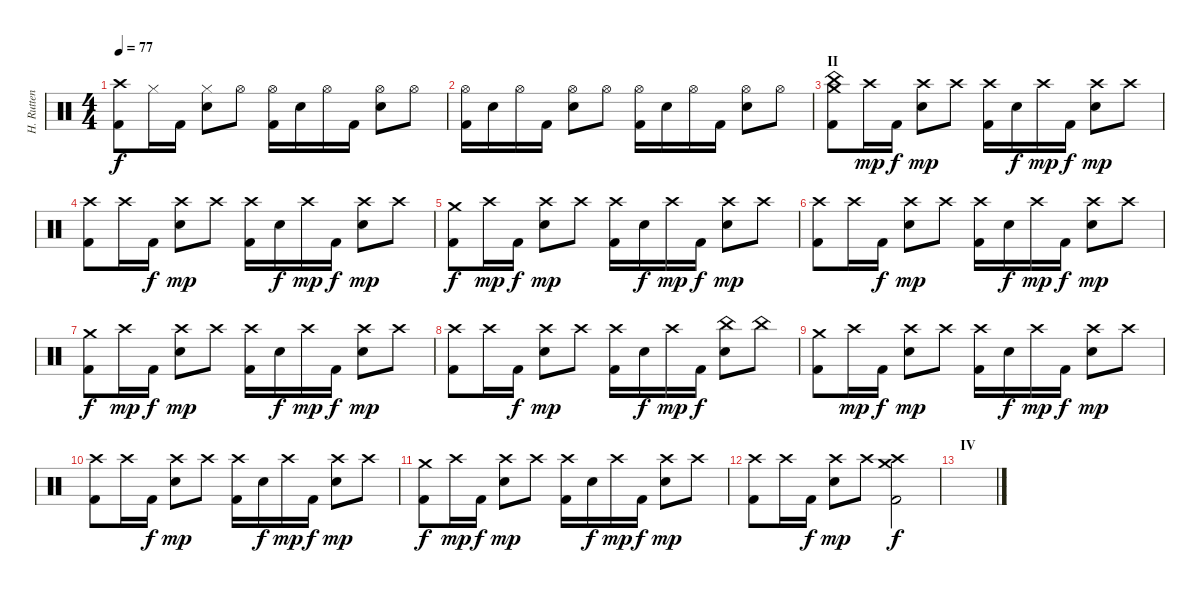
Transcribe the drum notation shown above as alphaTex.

\track ("H. Rutten" "H. Rutten") {instrument percussion}
\staff {score}
\articulation defaults
\ts (4 4)
\tempo 77
\clef neutral
\ks c
("Kick (hit) 2" "Crash high (hit)").8{dy f} "Hi-Hat (closed)".16 "Kick (hit) 2".16 ("Electric Snare (hit)" "Hi-Hat (closed)").8 "Hi-Hat (open)".8 ("Kick (hit) 2" "Hi-Hat (open)").16 "Electric Snare (hit)".16 "Hi-Hat (open)".16 "Kick (hit) 2".16 ("Electric Snare (hit)" "Hi-Hat (open)").8 "Hi-Hat (open)".8 |
("Kick (hit) 2" "Hi-Hat (open)").16 "Electric Snare (hit)".16 "Hi-Hat (open)".16 "Kick (hit) 2".16 ("Electric Snare (hit)" "Hi-Hat (open)").8 "Hi-Hat (open)".8 ("Kick (hit) 2" "Hi-Hat (open)").16 "Electric Snare (hit)".16 "Hi-Hat (open)".16 "Kick (hit) 2".16 ("Electric Snare (hit)" "Hi-Hat (open)").8 "Hi-Hat (open)".8 |
\section ("" "II")
("Kick (hit) 2" "Crash medium (hit)" "China (hit)").8 "Crash high (hit)".16{dy mp} "Kick (hit) 2".16{dy f} ("Electric Snare (hit)" "Crash high (hit)").8{dy mp} "Crash high (hit)".8 ("Kick (hit) 2" "Crash high (hit)").16 "Electric Snare (hit)".16{dy f} "Crash high (hit)".16{dy mp} "Kick (hit) 2".16{dy f} ("Electric Snare (hit)" "Crash high (hit)").8{dy mp} "Crash high (hit)".8 |
("Kick (hit) 2" "Crash high (hit)").8 "Crash high (hit)".16 "Kick (hit) 2".16{dy f} ("Electric Snare (hit)" "Crash high (hit)").8{dy mp} "Crash high (hit)".8 ("Kick (hit) 2" "Crash high (hit)").16 "Electric Snare (hit)".16{dy f} "Crash high (hit)".16{dy mp} "Kick (hit) 2".16{dy f} ("Electric Snare (hit)" "Crash high (hit)").8{dy mp} "Crash high (hit)".8 |
("Kick (hit) 2" "Crash medium (hit)").8{dy f} "Crash high (hit)".16{dy mp} "Kick (hit) 2".16{dy f} ("Electric Snare (hit)" "Crash high (hit)").8{dy mp} "Crash high (hit)".8 ("Kick (hit) 2" "Crash high (hit)").16 "Electric Snare (hit)".16{dy f} "Crash high (hit)".16{dy mp} "Kick (hit) 2".16{dy f} ("Electric Snare (hit)" "Crash high (hit)").8{dy mp} "Crash high (hit)".8 |
("Kick (hit) 2" "Crash high (hit)").8 "Crash high (hit)".16 "Kick (hit) 2".16{dy f} ("Electric Snare (hit)" "Crash high (hit)").8{dy mp} "Crash high (hit)".8 ("Kick (hit) 2" "Crash high (hit)").16 "Electric Snare (hit)".16{dy f} "Crash high (hit)".16{dy mp} "Kick (hit) 2".16{dy f} ("Electric Snare (hit)" "Crash high (hit)").8{dy mp} "Crash high (hit)".8 |
("Kick (hit) 2" "Crash medium (hit)").8{dy f} "Crash high (hit)".16{dy mp} "Kick (hit) 2".16{dy f} ("Electric Snare (hit)" "Crash high (hit)").8{dy mp} "Crash high (hit)".8 ("Kick (hit) 2" "Crash high (hit)").16 "Electric Snare (hit)".16{dy f} "Crash high (hit)".16{dy mp} "Kick (hit) 2".16{dy f} ("Electric Snare (hit)" "Crash high (hit)").8{dy mp} "Crash high (hit)".8 |
("Kick (hit) 2" "Crash high (hit)").8 "Crash high (hit)".16 "Kick (hit) 2".16{dy f} ("Electric Snare (hit)" "Crash high (hit)").8{dy mp} "Crash high (hit)".8 ("Kick (hit) 2" "Crash high (hit)").16 "Electric Snare (hit)".16{dy f} "Crash high (hit)".16{dy mp} "Kick (hit) 2".16{dy f} ("Electric Snare (hit)" "China (hit)").8 "China (hit)".8 |
("Kick (hit) 2" "Crash medium (hit)").8 "Crash high (hit)".16{dy mp} "Kick (hit) 2".16{dy f} ("Electric Snare (hit)" "Crash high (hit)").8{dy mp} "Crash high (hit)".8 ("Kick (hit) 2" "Crash high (hit)").16 "Electric Snare (hit)".16{dy f} "Crash high (hit)".16{dy mp} "Kick (hit) 2".16{dy f} ("Electric Snare (hit)" "Crash high (hit)").8{dy mp} "Crash high (hit)".8 |
("Kick (hit) 2" "Crash high (hit)").8 "Crash high (hit)".16 "Kick (hit) 2".16{dy f} ("Electric Snare (hit)" "Crash high (hit)").8{dy mp} "Crash high (hit)".8 ("Kick (hit) 2" "Crash high (hit)").16 "Electric Snare (hit)".16{dy f} "Crash high (hit)".16{dy mp} "Kick (hit) 2".16{dy f} ("Electric Snare (hit)" "Crash high (hit)").8{dy mp} "Crash high (hit)".8 |
("Kick (hit) 2" "Crash medium (hit)").8{dy f} "Crash high (hit)".16{dy mp} "Kick (hit) 2".16{dy f} ("Electric Snare (hit)" "Crash high (hit)").8{dy mp} "Crash high (hit)".8 ("Kick (hit) 2" "Crash high (hit)").16 "Electric Snare (hit)".16{dy f} "Crash high (hit)".16{dy mp} "Kick (hit) 2".16{dy f} ("Electric Snare (hit)" "Crash high (hit)").8{dy mp} "Crash high (hit)".8 |
("Kick (hit) 2" "Crash high (hit)").8 "Crash high (hit)".16 "Kick (hit) 2".16{dy f} ("Electric Snare (hit)" "Crash high (hit)").8{dy mp} "Crash high (hit)".8 ("Kick (hit) 2" "Crash high (hit)" "Crash medium (hit)").2{dy f} |
\section ("" "IV")
